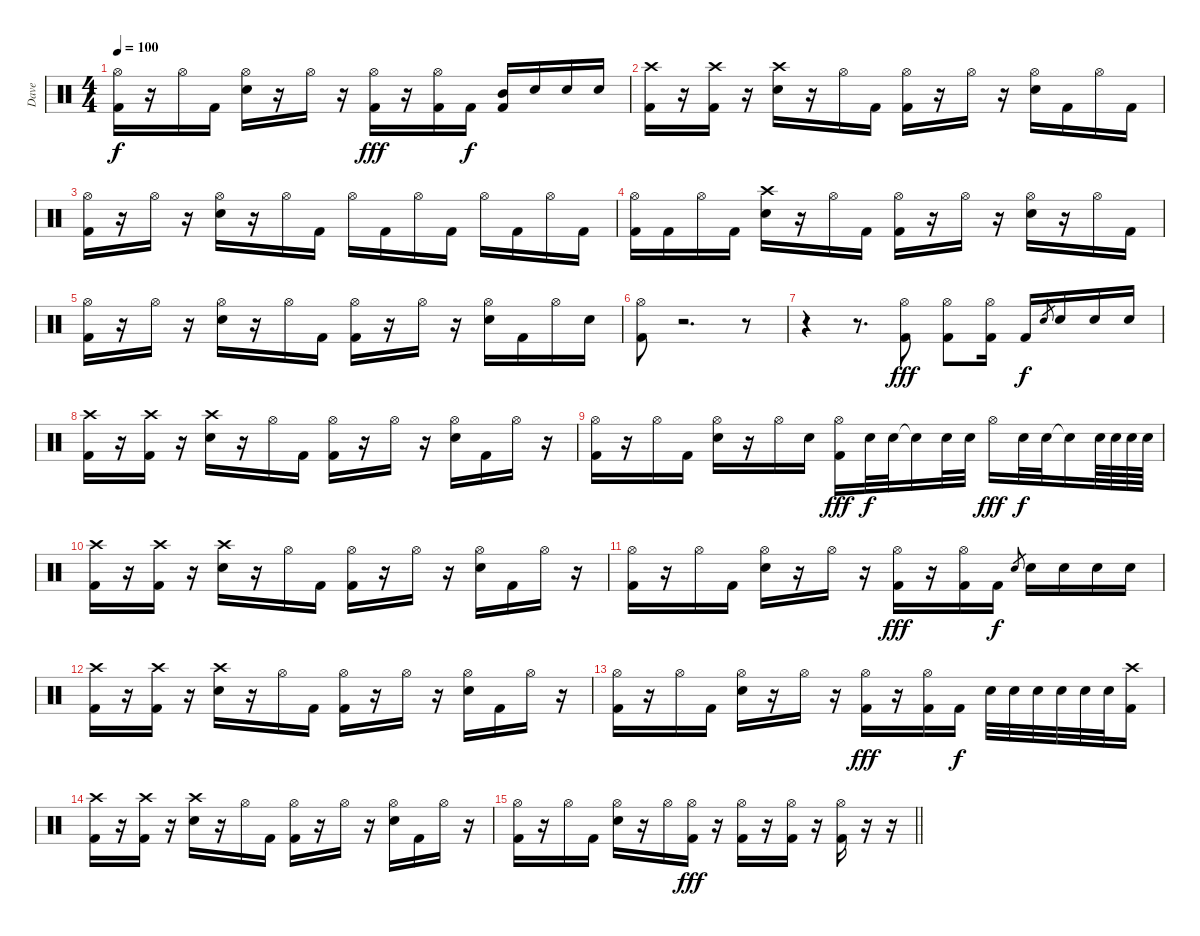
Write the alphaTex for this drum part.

\track ("Dave" "Dave") {instrument percussion}
\staff {score}
\articulation defaults
\ts (4 4)
\tempo 100
\clef neutral
\ks c
("Hi-Hat (open)" "Kick (hit) 2").16{dy f} r.16 "Hi-Hat (open)".16 "Kick (hit) 2".16 ("Hi-Hat (open)" "Electric Snare (hit)").16 r.16 "Hi-Hat (open)".16 r.16 ("Hi-Hat (open)" "Kick (hit) 2").16{dy fff} r.16 ("Hi-Hat (open)" "Kick (hit) 2").16 "Kick (hit) 2".16{dy f} ("Mid Tom (hit)" "Kick (hit) 2").16 "Electric Snare (hit)".16 "Electric Snare (hit)".16 "Electric Snare (hit)".16 |
("Crash high (hit)" "Kick (hit) 2").16 r.16 ("Crash high (hit)" "Kick (hit) 2").16 r.16 ("Crash high (hit)" "Electric Snare (hit)").16 r.16 "Hi-Hat (open)".16 "Kick (hit) 2".16 ("Hi-Hat (open)" "Kick (hit) 2").16 r.16 "Hi-Hat (open)".16 r.16 ("Hi-Hat (open)" "Electric Snare (hit)").16 "Kick (hit) 2".16 "Hi-Hat (open)".16 "Kick (hit) 2".16 |
("Hi-Hat (open)" "Kick (hit) 2").16 r.16 "Hi-Hat (open)".16 r.16 ("Hi-Hat (open)" "Electric Snare (hit)").16 r.16 "Hi-Hat (open)".16 "Kick (hit) 2".16 "Hi-Hat (open)".16 "Kick (hit) 2".16 "Hi-Hat (open)".16 "Kick (hit) 2".16 "Hi-Hat (open)".16 "Kick (hit) 2".16 "Hi-Hat (open)".16 "Kick (hit) 2".16 |
("Hi-Hat (open)" "Kick (hit) 2").16 "Kick (hit) 2".16 "Hi-Hat (open)".16 "Kick (hit) 2".16 ("Crash high (hit)" "Electric Snare (hit)").16 r.16 "Hi-Hat (open)".16 "Kick (hit) 2".16 ("Hi-Hat (open)" "Kick (hit) 2").16 r.16 "Hi-Hat (open)".16 r.16 ("Hi-Hat (open)" "Electric Snare (hit)").16 r.16 "Hi-Hat (open)".16 "Kick (hit) 2".16 |
("Hi-Hat (open)" "Kick (hit) 2").16 r.16 "Hi-Hat (open)".16 r.16 ("Hi-Hat (open)" "Electric Snare (hit)").16 r.16 "Hi-Hat (open)".16 "Kick (hit) 2".16 ("Hi-Hat (open)" "Kick (hit) 2").16 r.16 "Hi-Hat (open)".16 r.16 ("Hi-Hat (open)" "Electric Snare (hit)").16 "Kick (hit) 2".16 "Hi-Hat (open)".16 "Electric Snare (hit)".16 |
("Hi-Hat (open)" "Kick (hit) 2").8 r.2{d} r.8 |
r.4 r.8{d} ("Hi-Hat (open)" "Kick (hit) 2").8{dy fff} ("Hi-Hat (open)" "Kick (hit) 2").8 ("Hi-Hat (open)" "Kick (hit) 2").16 "Kick (hit) 2".16{dy f} "Electric Snare (hit)".8{gr} "Electric Snare (hit)".16 "Electric Snare (hit)".16 "Electric Snare (hit)".16 |
("Crash high (hit)" "Kick (hit) 2").16{volume 8} r.16 ("Crash high (hit)" "Kick (hit) 2").16 r.16 ("Crash high (hit)" "Electric Snare (hit)").16 r.16 "Hi-Hat (open)".16 "Kick (hit) 2".16 ("Hi-Hat (open)" "Kick (hit) 2").16 r.16 "Hi-Hat (open)".16 r.16 ("Hi-Hat (open)" "Electric Snare (hit)").16 "Kick (hit) 2".16 "Hi-Hat (open)".16 r.16 |
("Hi-Hat (open)" "Kick (hit) 2").16 r.16 "Hi-Hat (open)".16 "Kick (hit) 2".16 ("Hi-Hat (open)" "Electric Snare (hit)").16 r.16 "Hi-Hat (open)".16 "Electric Snare (hit)".16 ("Hi-Hat (open)" "Kick (hit) 2").16{dy fff} "Electric Snare (hit)".32{dy f} "Electric Snare (hit)".32 "Electric Snare (hit)"{t}.16 "Electric Snare (hit)".32 "Electric Snare (hit)".32 "Hi-Hat (open)".16{dy fff} "Electric Snare (hit)".32{dy f} "Electric Snare (hit)".32 "Snare (hit)"{t}.16 "Electric Snare (hit)".64 "Electric Snare (hit)".64 "Electric Snare (hit)".64 "Electric Snare (hit)".64 |
("Crash high (hit)" "Kick (hit) 2").16 r.16 ("Crash high (hit)" "Kick (hit) 2").16 r.16 ("Crash high (hit)" "Electric Snare (hit)").16 r.16 "Hi-Hat (open)".16 "Kick (hit) 2".16 ("Hi-Hat (open)" "Kick (hit) 2").16 r.16 "Hi-Hat (open)".16 r.16 ("Hi-Hat (open)" "Electric Snare (hit)").16 "Kick (hit) 2".16 "Hi-Hat (open)".16 r.16 |
("Hi-Hat (open)" "Kick (hit) 2").16 r.16 "Hi-Hat (open)".16 "Kick (hit) 2".16 ("Hi-Hat (open)" "Electric Snare (hit)").16 r.16 "Hi-Hat (open)".16 r.16 ("Hi-Hat (open)" "Kick (hit) 2").16{dy fff} r.16 ("Hi-Hat (open)" "Kick (hit) 2").16 "Kick (hit) 2".16{dy f} "Electric Snare (hit)".8{gr} "Electric Snare (hit)".16 "Electric Snare (hit)".16 "Electric Snare (hit)".16 "Electric Snare (hit)".16 |
("Crash high (hit)" "Kick (hit) 2").16{volume 0} r.16 ("Crash high (hit)" "Kick (hit) 2").16 r.16 ("Crash high (hit)" "Electric Snare (hit)").16 r.16 "Hi-Hat (open)".16 "Kick (hit) 2".16 ("Hi-Hat (open)" "Kick (hit) 2").16 r.16 "Hi-Hat (open)".16 r.16 ("Hi-Hat (open)" "Electric Snare (hit)").16 "Kick (hit) 2".16 "Hi-Hat (open)".16 r.16 |
("Hi-Hat (open)" "Kick (hit) 2").16 r.16 "Hi-Hat (open)".16 "Kick (hit) 2".16 ("Hi-Hat (open)" "Electric Snare (hit)").16 r.16 "Hi-Hat (open)".16 r.16 ("Hi-Hat (open)" "Kick (hit) 2").16{dy fff} r.16 ("Hi-Hat (open)" "Kick (hit) 2").16 "Kick (hit) 2".16{dy f} "Electric Snare (hit)".32 "Electric Snare (hit)".32 "Electric Snare (hit)".32 "Electric Snare (hit)".32 "Electric Snare (hit)".32 "Electric Snare (hit)".32 ("Crash high (hit)" "Kick (hit) 2").16 |
("Crash high (hit)" "Kick (hit) 2").16 r.16 ("Crash high (hit)" "Kick (hit) 2").16 r.16 ("Crash high (hit)" "Electric Snare (hit)").16 r.16 "Hi-Hat (open)".16 "Kick (hit) 2".16 ("Hi-Hat (open)" "Kick (hit) 2").16 r.16 "Hi-Hat (open)".16 r.16 ("Hi-Hat (open)" "Electric Snare (hit)").16 "Kick (hit) 2".16 "Hi-Hat (open)".16 r.16 |
\barLineRight lightlight
("Hi-Hat (open)" "Kick (hit) 2").16 r.16 "Hi-Hat (open)".16 "Kick (hit) 2".16 ("Hi-Hat (open)" "Electric Snare (hit)").16 r.16 "Hi-Hat (open)".16 ("Hi-Hat (open)" "Kick (hit) 2").16{dy fff} r.16 ("Hi-Hat (open)" "Kick (hit) 2").16 r.16 ("Hi-Hat (open)" "Kick (hit) 2").16 r.16 ("Hi-Hat (open)" "Kick (hit) 2").16 r.16 r.16
